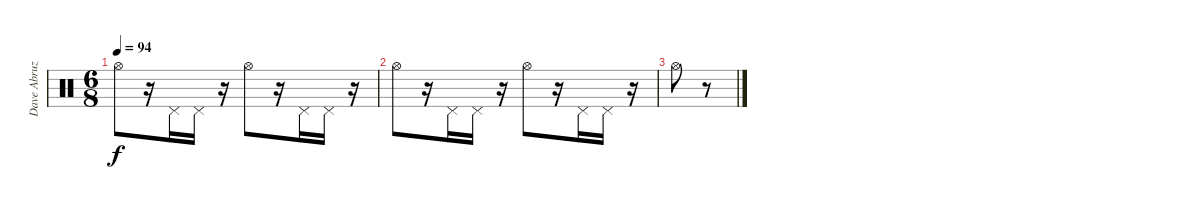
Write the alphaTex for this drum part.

\track ("Dave Abruzzese" "Dave Abruz") {instrument percussion}
\staff {score}
\articulation defaults
\ts (6 8)
\tempo 94
\clef neutral
\ks c "Hi-Hat (open)".8{dy f}
r.16 "Pedal Hi-Hat (hit)".16 "Pedal Hi-Hat (hit)".16 r.16 "Hi-Hat (open)".8 r.16 "Pedal Hi-Hat (hit)".16 "Pedal Hi-Hat (hit)".16 r.16 |
"Hi-Hat (open)".8 r.16 "Pedal Hi-Hat (hit)".16 "Pedal Hi-Hat (hit)".16 r.16 "Hi-Hat (open)".8 r.16 "Pedal Hi-Hat (hit)".16 "Pedal Hi-Hat (hit)".16 r.16 |
"Hi-Hat (open)".8 r.8
